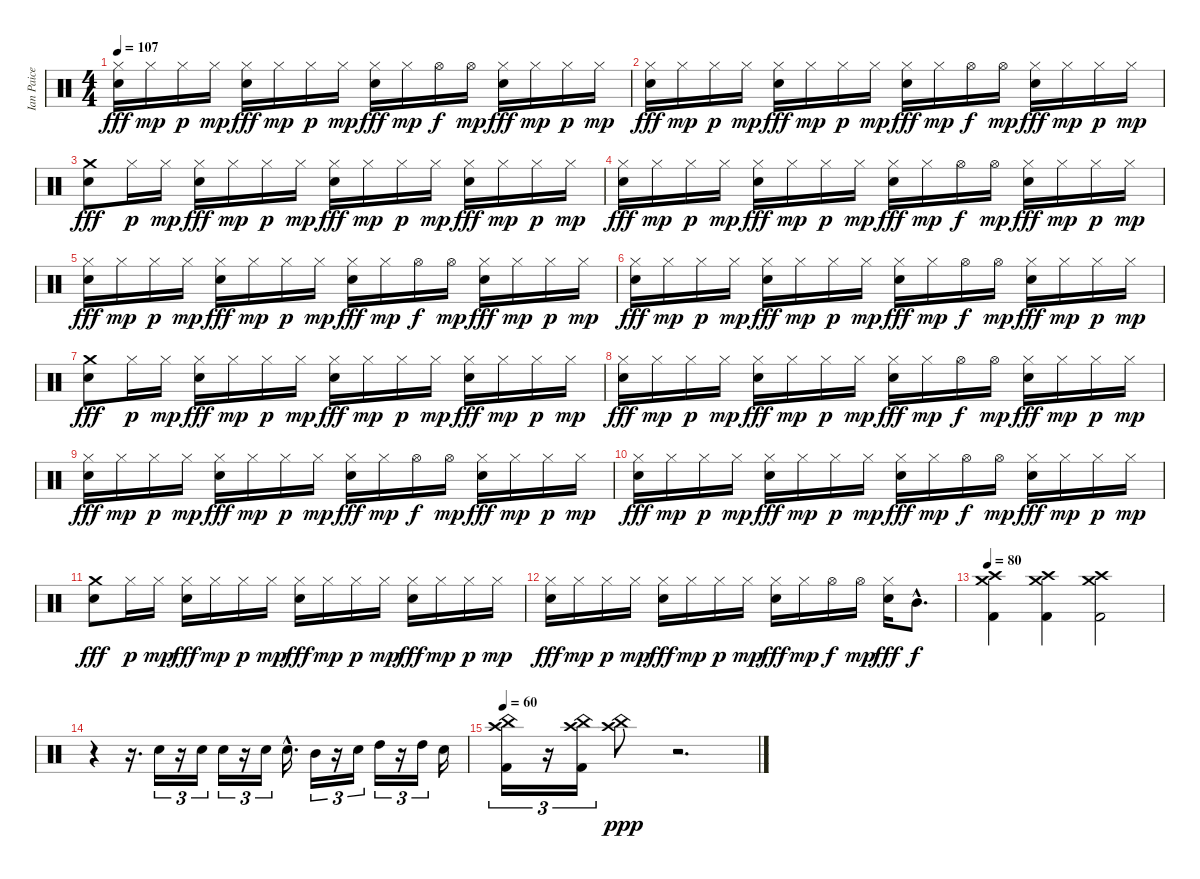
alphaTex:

\track ("Ian Paice" "Ian Paice") {instrument percussion}
\staff {score}
\articulation defaults
\ts (4 4)
\tempo 107
\clef neutral
\ks c
("Hi-Hat (closed)" "Electric Snare (hit)").16{dy fff} "Hi-Hat (closed)".16{dy mp} "Hi-Hat (closed)".16{dy p} "Hi-Hat (closed)".16{dy mp} ("Hi-Hat (closed)" "Electric Snare (hit)").16{dy fff} "Hi-Hat (closed)".16{dy mp} "Hi-Hat (closed)".16{dy p} "Hi-Hat (closed)".16{dy mp} ("Hi-Hat (closed)" "Electric Snare (hit)").16{dy fff} "Hi-Hat (closed)".16{dy mp} "Hi-Hat (open)".16{dy f} "Hi-Hat (open)".16{dy mp} ("Hi-Hat (closed)" "Electric Snare (hit)").16{dy fff} "Hi-Hat (closed)".16{dy mp} "Hi-Hat (closed)".16{dy p} "Hi-Hat (closed)".16{dy mp} |
("Hi-Hat (closed)" "Electric Snare (hit)").16{dy fff} "Hi-Hat (closed)".16{dy mp} "Hi-Hat (closed)".16{dy p} "Hi-Hat (closed)".16{dy mp} ("Hi-Hat (closed)" "Electric Snare (hit)").16{dy fff} "Hi-Hat (closed)".16{dy mp} "Hi-Hat (closed)".16{dy p} "Hi-Hat (closed)".16{dy mp} ("Hi-Hat (closed)" "Electric Snare (hit)").16{dy fff} "Hi-Hat (closed)".16{dy mp} "Hi-Hat (open)".16{dy f} "Hi-Hat (open)".16{dy mp} ("Hi-Hat (closed)" "Electric Snare (hit)").16{dy fff} "Hi-Hat (closed)".16{dy mp} "Hi-Hat (closed)".16{dy p} "Hi-Hat (closed)".16{dy mp} |
("Crash medium (hit)" "Electric Snare (hit)").8{dy fff} "Hi-Hat (closed)".16{dy p} "Hi-Hat (closed)".16{dy mp} ("Hi-Hat (closed)" "Electric Snare (hit)").16{dy fff} "Hi-Hat (closed)".16{dy mp} "Hi-Hat (closed)".16{dy p} "Hi-Hat (closed)".16{dy mp} ("Hi-Hat (closed)" "Electric Snare (hit)").16{dy fff} "Hi-Hat (closed)".16{dy mp} "Hi-Hat (closed)".16{dy p} "Hi-Hat (closed)".16{dy mp} ("Hi-Hat (closed)" "Electric Snare (hit)").16{dy fff} "Hi-Hat (closed)".16{dy mp} "Hi-Hat (closed)".16{dy p} "Hi-Hat (closed)".16{dy mp} |
("Hi-Hat (closed)" "Electric Snare (hit)").16{dy fff} "Hi-Hat (closed)".16{dy mp} "Hi-Hat (closed)".16{dy p} "Hi-Hat (closed)".16{dy mp} ("Hi-Hat (closed)" "Electric Snare (hit)").16{dy fff} "Hi-Hat (closed)".16{dy mp} "Hi-Hat (closed)".16{dy p} "Hi-Hat (closed)".16{dy mp} ("Hi-Hat (closed)" "Electric Snare (hit)").16{dy fff} "Hi-Hat (closed)".16{dy mp} "Hi-Hat (open)".16{dy f} "Hi-Hat (open)".16{dy mp} ("Hi-Hat (closed)" "Electric Snare (hit)").16{dy fff} "Hi-Hat (closed)".16{dy mp} "Hi-Hat (closed)".16{dy p} "Hi-Hat (closed)".16{dy mp} |
("Hi-Hat (closed)" "Electric Snare (hit)").16{dy fff} "Hi-Hat (closed)".16{dy mp} "Hi-Hat (closed)".16{dy p} "Hi-Hat (closed)".16{dy mp} ("Hi-Hat (closed)" "Electric Snare (hit)").16{dy fff} "Hi-Hat (closed)".16{dy mp} "Hi-Hat (closed)".16{dy p} "Hi-Hat (closed)".16{dy mp} ("Hi-Hat (closed)" "Electric Snare (hit)").16{dy fff} "Hi-Hat (closed)".16{dy mp} "Hi-Hat (open)".16{dy f} "Hi-Hat (open)".16{dy mp} ("Hi-Hat (closed)" "Electric Snare (hit)").16{dy fff} "Hi-Hat (closed)".16{dy mp} "Hi-Hat (closed)".16{dy p} "Hi-Hat (closed)".16{dy mp} |
("Hi-Hat (closed)" "Electric Snare (hit)").16{dy fff} "Hi-Hat (closed)".16{dy mp} "Hi-Hat (closed)".16{dy p} "Hi-Hat (closed)".16{dy mp} ("Hi-Hat (closed)" "Electric Snare (hit)").16{dy fff} "Hi-Hat (closed)".16{dy mp} "Hi-Hat (closed)".16{dy p} "Hi-Hat (closed)".16{dy mp} ("Hi-Hat (closed)" "Electric Snare (hit)").16{dy fff} "Hi-Hat (closed)".16{dy mp} "Hi-Hat (open)".16{dy f} "Hi-Hat (open)".16{dy mp} ("Hi-Hat (closed)" "Electric Snare (hit)").16{dy fff} "Hi-Hat (closed)".16{dy mp} "Hi-Hat (closed)".16{dy p} "Hi-Hat (closed)".16{dy mp} |
("Crash medium (hit)" "Electric Snare (hit)").8{dy fff} "Hi-Hat (closed)".16{dy p} "Hi-Hat (closed)".16{dy mp} ("Hi-Hat (closed)" "Electric Snare (hit)").16{dy fff} "Hi-Hat (closed)".16{dy mp} "Hi-Hat (closed)".16{dy p} "Hi-Hat (closed)".16{dy mp} ("Hi-Hat (closed)" "Electric Snare (hit)").16{dy fff} "Hi-Hat (closed)".16{dy mp} "Hi-Hat (closed)".16{dy p} "Hi-Hat (closed)".16{dy mp} ("Hi-Hat (closed)" "Electric Snare (hit)").16{dy fff} "Hi-Hat (closed)".16{dy mp} "Hi-Hat (closed)".16{dy p} "Hi-Hat (closed)".16{dy mp} |
("Hi-Hat (closed)" "Electric Snare (hit)").16{dy fff} "Hi-Hat (closed)".16{dy mp} "Hi-Hat (closed)".16{dy p} "Hi-Hat (closed)".16{dy mp} ("Hi-Hat (closed)" "Electric Snare (hit)").16{dy fff} "Hi-Hat (closed)".16{dy mp} "Hi-Hat (closed)".16{dy p} "Hi-Hat (closed)".16{dy mp} ("Hi-Hat (closed)" "Electric Snare (hit)").16{dy fff} "Hi-Hat (closed)".16{dy mp} "Hi-Hat (open)".16{dy f} "Hi-Hat (open)".16{dy mp} ("Hi-Hat (closed)" "Electric Snare (hit)").16{dy fff} "Hi-Hat (closed)".16{dy mp} "Hi-Hat (closed)".16{dy p} "Hi-Hat (closed)".16{dy mp} |
("Hi-Hat (closed)" "Electric Snare (hit)").16{dy fff} "Hi-Hat (closed)".16{dy mp} "Hi-Hat (closed)".16{dy p} "Hi-Hat (closed)".16{dy mp} ("Hi-Hat (closed)" "Electric Snare (hit)").16{dy fff} "Hi-Hat (closed)".16{dy mp} "Hi-Hat (closed)".16{dy p} "Hi-Hat (closed)".16{dy mp} ("Hi-Hat (closed)" "Electric Snare (hit)").16{dy fff} "Hi-Hat (closed)".16{dy mp} "Hi-Hat (open)".16{dy f} "Hi-Hat (open)".16{dy mp} ("Hi-Hat (closed)" "Electric Snare (hit)").16{dy fff} "Hi-Hat (closed)".16{dy mp} "Hi-Hat (closed)".16{dy p} "Hi-Hat (closed)".16{dy mp} |
("Hi-Hat (closed)" "Electric Snare (hit)").16{dy fff} "Hi-Hat (closed)".16{dy mp} "Hi-Hat (closed)".16{dy p} "Hi-Hat (closed)".16{dy mp} ("Hi-Hat (closed)" "Electric Snare (hit)").16{dy fff} "Hi-Hat (closed)".16{dy mp} "Hi-Hat (closed)".16{dy p} "Hi-Hat (closed)".16{dy mp} ("Hi-Hat (closed)" "Electric Snare (hit)").16{dy fff} "Hi-Hat (closed)".16{dy mp} "Hi-Hat (open)".16{dy f} "Hi-Hat (open)".16{dy mp} ("Hi-Hat (closed)" "Electric Snare (hit)").16{dy fff} "Hi-Hat (closed)".16{dy mp} "Hi-Hat (closed)".16{dy p} "Hi-Hat (closed)".16{dy mp} |
("Crash medium (hit)" "Electric Snare (hit)").8{dy fff} "Hi-Hat (closed)".16{dy p} "Hi-Hat (closed)".16{dy mp} ("Hi-Hat (closed)" "Electric Snare (hit)").16{dy fff} "Hi-Hat (closed)".16{dy mp} "Hi-Hat (closed)".16{dy p} "Hi-Hat (closed)".16{dy mp} ("Hi-Hat (closed)" "Electric Snare (hit)").16{dy fff} "Hi-Hat (closed)".16{dy mp} "Hi-Hat (closed)".16{dy p} "Hi-Hat (closed)".16{dy mp} ("Hi-Hat (closed)" "Electric Snare (hit)").16{dy fff} "Hi-Hat (closed)".16{dy mp} "Hi-Hat (closed)".16{dy p} "Hi-Hat (closed)".16{dy mp} |
("Hi-Hat (closed)" "Electric Snare (hit)").16{dy fff} "Hi-Hat (closed)".16{dy mp} "Hi-Hat (closed)".16{dy p} "Hi-Hat (closed)".16{dy mp} ("Hi-Hat (closed)" "Electric Snare (hit)").16{dy fff} "Hi-Hat (closed)".16{dy mp} "Hi-Hat (closed)".16{dy p} "Hi-Hat (closed)".16{dy mp} ("Hi-Hat (closed)" "Electric Snare (hit)").16{dy fff} "Hi-Hat (closed)".16{dy mp} "Hi-Hat (open)".16{dy f} "Hi-Hat (open)".16{dy mp} ("Hi-Hat (closed)" "Electric Snare (hit)").16{dy fff} "Mid Tom (hit)"{hac}.8{d dy f} |
\tempo 80
("Crash high (hit)" "Crash medium (hit)" "Kick (hit) 2").4 ("Crash high (hit)" "Crash medium (hit)" "Kick (hit) 2").4 ("Crash high (hit)" "Crash medium (hit)" "Kick (hit) 2").2 |
r.4 r.16{d} "Electric Snare (hit)".16{tu (3 2)} r.16{tu (3 2)} "Electric Snare (hit)".16{tu (3 2)} "Electric Snare (hit)".16{tu (3 2)} r.16{tu (3 2)} "Electric Snare (hit)".16{tu (3 2)} "Electric Snare (hit)"{hac}.16{d} "Mid Tom (hit)".16{tu (3 2)} r.16{tu (3 2)} "Electric Snare (hit)".16{tu (3 2)} "High Tom (hit)".16{tu (3 2)} r.16{tu (3 2)} "High Tom (hit)".16{tu (3 2)} "Electric Snare (hit)".16 |
\tempo 60
("Crash high (hit)" "China (hit)" "Kick (hit) 2").16{tu (3 2)} r.16{tu (3 2)} ("Crash high (hit)" "China (hit)" "Kick (hit) 2").16{tu (3 2)} ("Crash high (hit)" "China (hit)").8{dy ppp} r.2{d}
